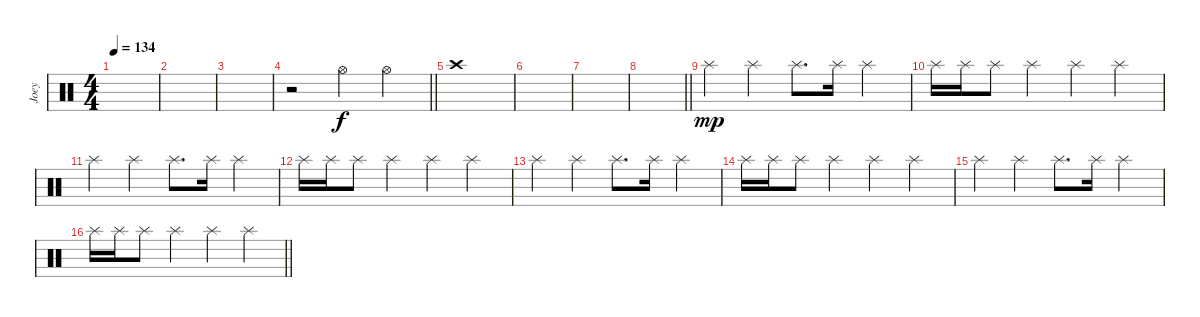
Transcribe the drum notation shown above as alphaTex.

\track ("Joey" "Joey") {instrument percussion}
\staff {score}
\articulation defaults
\ts (4 4)
\tempo 134
\clef neutral
\ks c
|
|
|
\barLineRight lightlight
r.2 "Hi-Hat (open)".4 "Hi-Hat (open)".4 |
\section ("" "")
"Crash high (hit)".1 |
|
|
\barLineRight lightlight
|
\section ("" "")
"Splash (hit)".4{dy mp} "Splash (hit)".4 "Splash (hit)".8{d} "Splash (hit)".16 "Splash (hit)".4 |
"Splash (hit)".16 "Splash (hit)".16 "Splash (hit)".8 "Splash (hit)".4 "Splash (hit)".4 "Splash (hit)".4 |
"Splash (hit)".4 "Splash (hit)".4 "Splash (hit)".8{d} "Splash (hit)".16 "Splash (hit)".4 |
"Splash (hit)".16 "Splash (hit)".16 "Splash (hit)".8 "Splash (hit)".4 "Splash (hit)".4 "Splash (hit)".4 |
"Splash (hit)".4 "Splash (hit)".4 "Splash (hit)".8{d} "Splash (hit)".16 "Splash (hit)".4 |
"Splash (hit)".16 "Splash (hit)".16 "Splash (hit)".8 "Splash (hit)".4 "Splash (hit)".4 "Splash (hit)".4 |
"Splash (hit)".4 "Splash (hit)".4 "Splash (hit)".8{d} "Splash (hit)".16 "Splash (hit)".4 |
\barLineRight lightlight "Splash (hit)".16 "Splash (hit)".16 "Splash (hit)".8 "Splash (hit)".4 "Splash (hit)".4 "Splash (hit)".4
